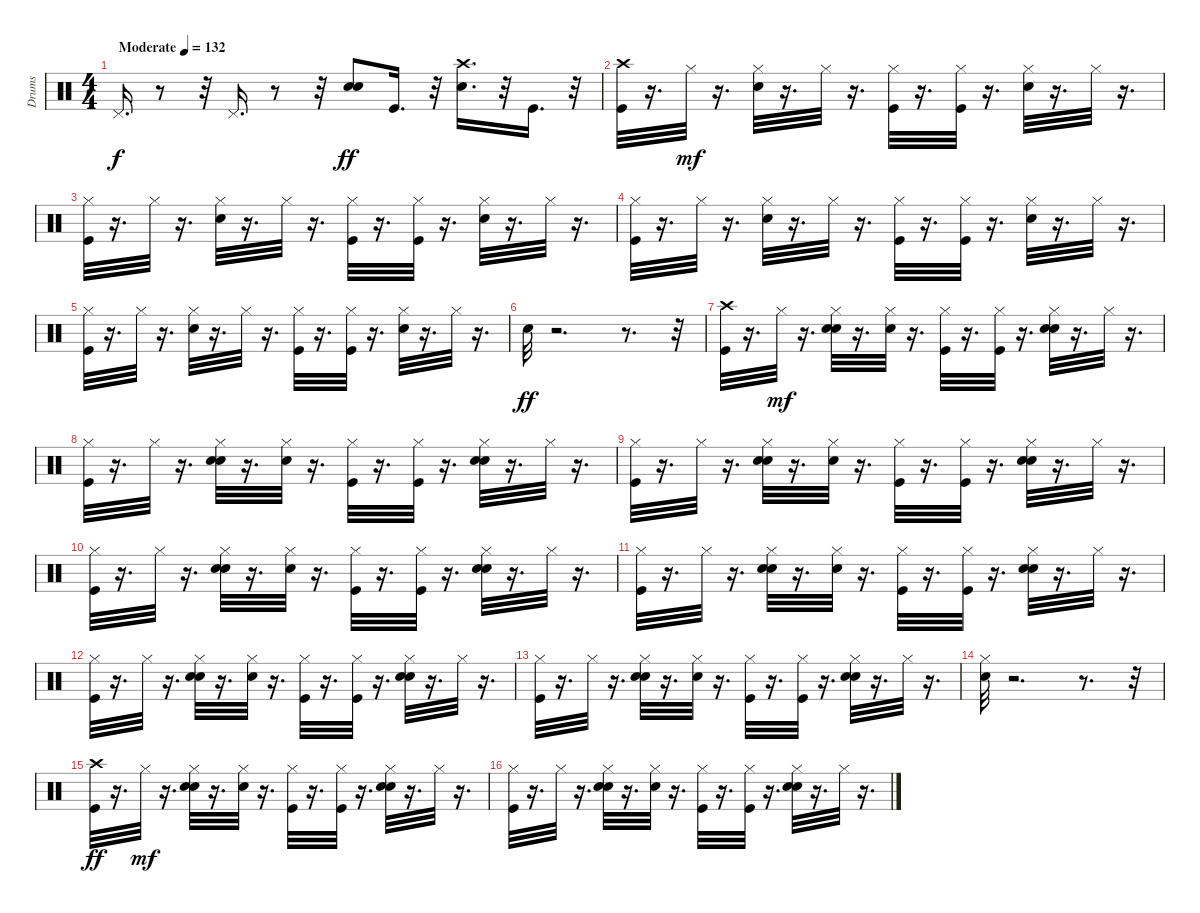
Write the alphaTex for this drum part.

\track ("Drums" "Drums") {instrument percussion}
\staff {score}
\articulation defaults
\ts (4 4)
\tempo (132 "Moderate")
\clef neutral
\ks c "Pedal Hi-Hat (hit)".16{d dy f}
r.8 r.32 "Pedal Hi-Hat (hit)".16{d} r.8 r.32 ("Electric Snare (hit)" "Electric Snare (hit)").8{dy ff} "Kick (hit)".16{d} r.32 ("Electric Snare (hit)" "Crash high (hit)").16{d} r.32 "Kick (hit)".16{d} r.32 |
("Kick (hit)" "Crash high (hit)").32 r.16{d} "Hi-Hat (closed)".32{dy mf} r.16{d} ("Electric Snare (hit)" "Hi-Hat (closed)").32 r.16{d} "Hi-Hat (closed)".32 r.16{d} ("Kick (hit)" "Hi-Hat (closed)").32 r.16{d} ("Kick (hit)" "Hi-Hat (closed)").32 r.16{d} ("Electric Snare (hit)" "Hi-Hat (closed)").32 r.16{d} "Hi-Hat (closed)".32 r.16{d} |
("Kick (hit)" "Hi-Hat (closed)").32 r.16{d} "Hi-Hat (closed)".32 r.16{d} ("Electric Snare (hit)" "Hi-Hat (closed)").32 r.16{d} "Hi-Hat (closed)".32 r.16{d} ("Kick (hit)" "Hi-Hat (closed)").32 r.16{d} ("Kick (hit)" "Hi-Hat (closed)").32 r.16{d} ("Electric Snare (hit)" "Hi-Hat (closed)").32 r.16{d} "Hi-Hat (closed)".32 r.16{d} |
("Kick (hit)" "Hi-Hat (closed)").32 r.16{d} "Hi-Hat (closed)".32 r.16{d} ("Electric Snare (hit)" "Hi-Hat (closed)").32 r.16{d} "Hi-Hat (closed)".32 r.16{d} ("Kick (hit)" "Hi-Hat (closed)").32 r.16{d} ("Kick (hit)" "Hi-Hat (closed)").32 r.16{d} ("Electric Snare (hit)" "Hi-Hat (closed)").32 r.16{d} "Hi-Hat (closed)".32 r.16{d} |
("Kick (hit)" "Hi-Hat (closed)").32 r.16{d} "Hi-Hat (closed)".32 r.16{d} ("Electric Snare (hit)" "Hi-Hat (closed)").32 r.16{d} "Hi-Hat (closed)".32 r.16{d} ("Kick (hit)" "Hi-Hat (closed)").32 r.16{d} ("Kick (hit)" "Hi-Hat (closed)").32 r.16{d} ("Electric Snare (hit)" "Hi-Hat (closed)").32 r.16{d} "Hi-Hat (closed)".32 r.16{d} |
"Electric Snare (hit)".32{dy ff} r.2{d} r.8{d} r.32 |
("Kick (hit)" "Crash high (hit)").32 r.16{d} "Hi-Hat (closed)".32{dy mf} r.16{d} ("Hand Clap (hit)" "Electric Snare (hit)" "Hi-Hat (closed)").32 r.16{d} ("Hand Clap (hit)" "Hi-Hat (closed)").32 r.16{d} ("Kick (hit)" "Hi-Hat (closed)").32 r.16{d} ("Kick (hit)" "Hi-Hat (closed)").32 r.16{d} ("Hand Clap (hit)" "Electric Snare (hit)" "Hi-Hat (closed)").32 r.16{d} "Hi-Hat (closed)".32 r.16{d} |
("Kick (hit)" "Hi-Hat (closed)").32 r.16{d} "Hi-Hat (closed)".32 r.16{d} ("Hand Clap (hit)" "Electric Snare (hit)" "Hi-Hat (closed)").32 r.16{d} ("Hand Clap (hit)" "Hi-Hat (closed)").32 r.16{d} ("Kick (hit)" "Hi-Hat (closed)").32 r.16{d} ("Kick (hit)" "Hi-Hat (closed)").32 r.16{d} ("Hand Clap (hit)" "Electric Snare (hit)" "Hi-Hat (closed)").32 r.16{d} "Hi-Hat (closed)".32 r.16{d} |
("Kick (hit)" "Hi-Hat (closed)").32 r.16{d} "Hi-Hat (closed)".32 r.16{d} ("Hand Clap (hit)" "Electric Snare (hit)" "Hi-Hat (closed)").32 r.16{d} ("Hand Clap (hit)" "Hi-Hat (closed)").32 r.16{d} ("Kick (hit)" "Hi-Hat (closed)").32 r.16{d} ("Kick (hit)" "Hi-Hat (closed)").32 r.16{d} ("Hand Clap (hit)" "Electric Snare (hit)" "Hi-Hat (closed)").32 r.16{d} "Hi-Hat (closed)".32 r.16{d} |
("Kick (hit)" "Hi-Hat (closed)").32 r.16{d} "Hi-Hat (closed)".32 r.16{d} ("Hand Clap (hit)" "Electric Snare (hit)" "Hi-Hat (closed)").32 r.16{d} ("Hand Clap (hit)" "Hi-Hat (closed)").32 r.16{d} ("Kick (hit)" "Hi-Hat (closed)").32 r.16{d} ("Kick (hit)" "Hi-Hat (closed)").32 r.16{d} ("Hand Clap (hit)" "Electric Snare (hit)" "Hi-Hat (closed)").32 r.16{d} "Hi-Hat (closed)".32 r.16{d} |
("Kick (hit)" "Hi-Hat (closed)").32 r.16{d} "Hi-Hat (closed)".32 r.16{d} ("Hand Clap (hit)" "Electric Snare (hit)" "Hi-Hat (closed)").32 r.16{d} ("Hand Clap (hit)" "Hi-Hat (closed)").32 r.16{d} ("Kick (hit)" "Hi-Hat (closed)").32 r.16{d} ("Kick (hit)" "Hi-Hat (closed)").32 r.16{d} ("Hand Clap (hit)" "Electric Snare (hit)" "Hi-Hat (closed)").32 r.16{d} "Hi-Hat (closed)".32 r.16{d} |
("Kick (hit)" "Hi-Hat (closed)").32 r.16{d} "Hi-Hat (closed)".32 r.16{d} ("Hand Clap (hit)" "Electric Snare (hit)" "Hi-Hat (closed)").32 r.16{d} ("Hand Clap (hit)" "Hi-Hat (closed)").32 r.16{d} ("Kick (hit)" "Hi-Hat (closed)").32 r.16{d} ("Kick (hit)" "Hi-Hat (closed)").32 r.16{d} ("Hand Clap (hit)" "Electric Snare (hit)" "Hi-Hat (closed)").32 r.16{d} "Hi-Hat (closed)".32 r.16{d} |
("Kick (hit)" "Hi-Hat (closed)").32 r.16{d} "Hi-Hat (closed)".32 r.16{d} ("Hand Clap (hit)" "Electric Snare (hit)" "Hi-Hat (closed)").32 r.16{d} ("Hand Clap (hit)" "Hi-Hat (closed)").32 r.16{d} ("Kick (hit)" "Hi-Hat (closed)").32 r.16{d} ("Kick (hit)" "Hi-Hat (closed)").32 r.16{d} ("Hand Clap (hit)" "Electric Snare (hit)" "Hi-Hat (closed)").32 r.16{d} "Hi-Hat (closed)".32 r.16{d} |
("Electric Snare (hit)" "Hi-Hat (closed)").32 r.2{d} r.8{d} r.32 |
("Kick (hit)" "Crash high (hit)").32{dy ff} r.16{d} "Hi-Hat (closed)".32{dy mf} r.16{d} ("Hand Clap (hit)" "Electric Snare (hit)" "Hi-Hat (closed)").32 r.16{d} ("Hand Clap (hit)" "Hi-Hat (closed)").32 r.16{d} ("Kick (hit)" "Hi-Hat (closed)").32 r.16{d} ("Kick (hit)" "Hi-Hat (closed)").32 r.16{d} ("Hand Clap (hit)" "Electric Snare (hit)" "Hi-Hat (closed)").32 r.16{d} "Hi-Hat (closed)".32 r.16{d} |
("Kick (hit)" "Hi-Hat (closed)").32 r.16{d} "Hi-Hat (closed)".32 r.16{d} ("Hand Clap (hit)" "Electric Snare (hit)" "Hi-Hat (closed)").32 r.16{d} ("Hand Clap (hit)" "Hi-Hat (closed)").32 r.16{d} ("Kick (hit)" "Hi-Hat (closed)").32 r.16{d} ("Kick (hit)" "Hi-Hat (closed)").32 r.16{d} ("Hand Clap (hit)" "Electric Snare (hit)" "Hi-Hat (closed)").32 r.16{d} "Hi-Hat (closed)".32 r.16{d}
